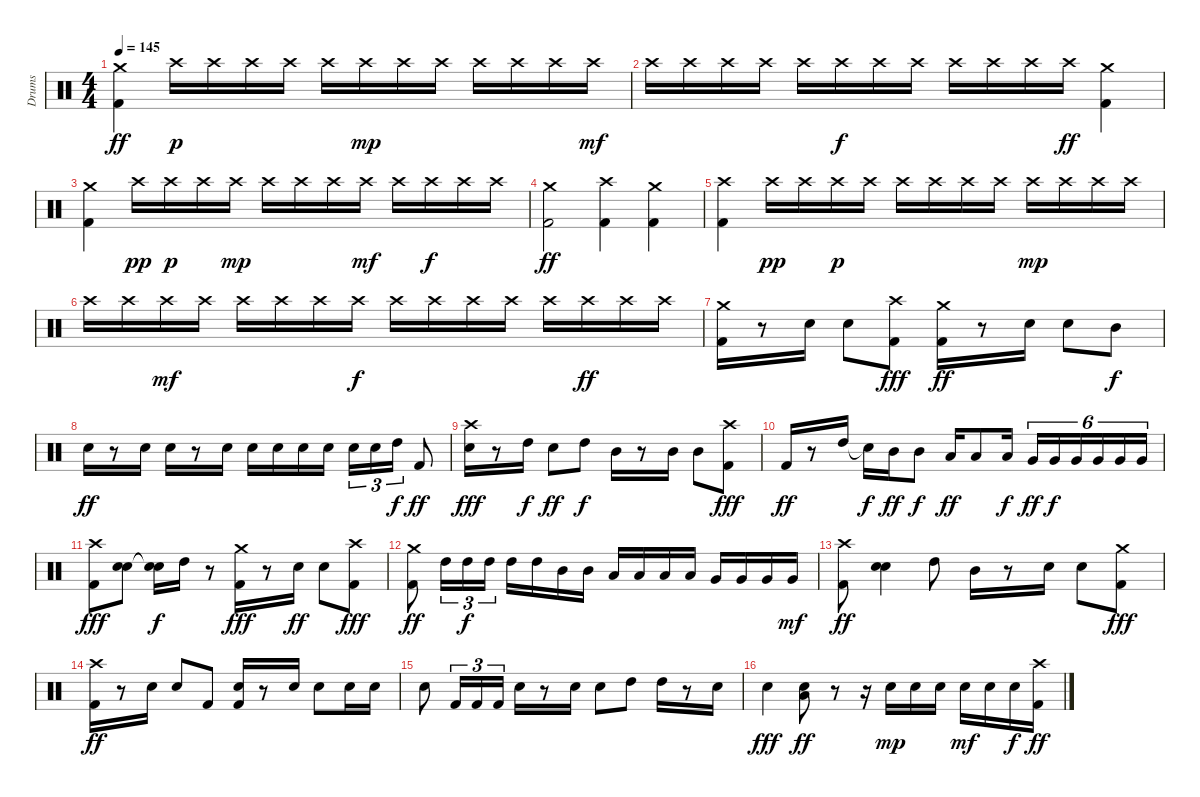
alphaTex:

\track ("Drums" "Drums") {instrument percussion}
\staff {score}
\articulation defaults
\ts (4 4)
\tempo 145
\clef neutral
\ks c
("Crash medium (hit)" "Kick (hit) 2").4{dy ff} "Crash high (hit)".16{dy p} "Crash high (hit)".16 "Crash high (hit)".16 "Crash high (hit)".16 "Crash high (hit)".16 "Crash high (hit)".16{dy mp} "Crash high (hit)".16 "Crash high (hit)".16 "Crash high (hit)".16 "Crash high (hit)".16 "Crash high (hit)".16 "Crash high (hit)".16{dy mf} |
"Crash high (hit)".16 "Crash high (hit)".16 "Crash high (hit)".16 "Crash high (hit)".16 "Crash high (hit)".16 "Crash high (hit)".16{dy f} "Crash high (hit)".16 "Crash high (hit)".16 "Crash high (hit)".16 "Crash high (hit)".16 "Crash high (hit)".16 "Crash high (hit)".16{dy ff} ("Crash medium (hit)" "Kick (hit) 2").4 |
("Crash medium (hit)" "Kick (hit) 2").4 "Crash high (hit)".16{dy pp} "Crash high (hit)".16{dy p} "Crash high (hit)".16 "Crash high (hit)".16{dy mp} "Crash high (hit)".16 "Crash high (hit)".16 "Crash high (hit)".16 "Crash high (hit)".16{dy mf} "Crash high (hit)".16 "Crash high (hit)".16{dy f} "Crash high (hit)".16 "Crash high (hit)".16 |
("Crash medium (hit)" "Kick (hit) 2").2{dy ff} ("Crash high (hit)" "Kick (hit) 2").4 ("Crash medium (hit)" "Kick (hit) 2").4 |
("Crash high (hit)" "Kick (hit) 2").4 "Crash high (hit)".16{dy pp} "Crash high (hit)".16 "Crash high (hit)".16{dy p} "Crash high (hit)".16 "Crash high (hit)".16 "Crash high (hit)".16 "Crash high (hit)".16 "Crash high (hit)".16 "Crash high (hit)".16{dy mp} "Crash high (hit)".16 "Crash high (hit)".16 "Crash high (hit)".16 |
"Crash high (hit)".16 "Crash high (hit)".16 "Crash high (hit)".16{dy mf} "Crash high (hit)".16 "Crash high (hit)".16 "Crash high (hit)".16 "Crash high (hit)".16 "Crash high (hit)".16{dy f} "Crash high (hit)".16 "Crash high (hit)".16 "Crash high (hit)".16 "Crash high (hit)".16 "Crash high (hit)".16 "Crash high (hit)".16{dy ff} "Crash high (hit)".16 "Crash high (hit)".16 |
("Crash medium (hit)" "Kick (hit) 2").16 r.8 "Snare (hit) 2".16 "Snare (hit) 2".8 ("Kick (hit) 2" "Crash high (hit)").8{dy fff} ("Crash medium (hit)" "Kick (hit) 2").16{dy ff} r.8 "Snare (hit) 2".16 "Snare (hit) 2".8 "Mid Tom (hit)".8{dy f} |
"Snare (hit) 2".16{dy ff} r.8 "Snare (hit) 2".16 "Snare (hit) 2".16 r.8 "Snare (hit) 2".16 "Snare (hit) 2".16 "Snare (hit) 2".16 "Snare (hit) 2".16 "Snare (hit) 2".16 "Snare (hit) 2".16{tu (3 2)} "Snare (hit) 2".16{tu (3 2)} "High Tom (hit)".16{tu (3 2) dy f} "Kick (hit) 2".8{dy ff} |
("Snare (hit) 2" "Crash high (hit)").16{dy fff} r.8 "High Tom (hit)".16{dy f} "Snare (hit) 2".8{dy ff} "High Tom (hit)".8{dy f} "Mid Tom (hit)".16 r.8 "Mid Tom (hit)".16 "Mid Tom (hit)".8 ("Kick (hit) 2" "Crash high (hit)").8{dy fff} |
"Kick (hit) 2".16{dy ff} r.8 "High Tom (hit)".16 "Snare (hit)"{t}.16{dy f} "Mid Tom (hit)".16{dy ff} "Mid Tom (hit)".8{dy f} "Low Tom (hit)".16{dy ff} "Low Tom (hit)".8 "Low Tom (hit)".16{dy f} "Very Low Tom (hit)".16{tu (6 4) dy ff} "Very Low Tom (hit)".16{tu (6 4) dy f} "Very Low Tom (hit)".16{tu (6 4)} "Very Low Tom (hit)".16{tu (6 4)} "Very Low Tom (hit)".16{tu (6 4)} "Very Low Tom (hit)".16{tu (6 4)} |
("Kick (hit) 2" "Crash high (hit)").8{dy fff} ("Snare (hit) 2" "Snare (hit) 2").8 ("Snare (hit)"{t} "Snare (hit)"{t}).16{dy f} "High Tom (hit)".16 r.8 ("Kick (hit) 2" "Crash medium (hit)").16{dy fff} r.8 "Snare (hit) 2".16{dy ff} "Snare (hit) 2".8 ("Kick (hit) 2" "Crash high (hit)").8{dy fff} |
("Crash medium (hit)" "Kick (hit) 2").8{dy ff} "High Tom (hit)".16{tu (3 2)} "High Tom (hit)".16{tu (3 2) dy f} "High Tom (hit)".16{tu (3 2)} "High Tom (hit)".16 "High Tom (hit)".16 "Mid Tom (hit)".16 "Mid Tom (hit)".16 "Low Tom (hit)".16 "Low Tom (hit)".16 "Low Tom (hit)".16 "Low Tom (hit)".16 "Very Low Tom (hit)".16 "Very Low Tom (hit)".16 "Very Low Tom (hit)".16 "Very Low Tom (hit)".16{dy mf} |
("Crash high (hit)" "Kick (hit) 2").8{dy ff} ("Snare (hit) 2" "Snare (hit) 2").4 "High Tom (hit)".8 "Mid Tom (hit)".16 r.8 "Snare (hit) 2".16 "Snare (hit) 2".8 ("Kick (hit) 2" "Crash medium (hit)").8{dy fff} |
("Crash high (hit)" "Kick (hit) 2").16{dy ff} r.8 "Snare (hit) 2".16 "Snare (hit) 2".8 "Kick (hit) 2".8 ("Snare (hit) 2" "Kick (hit) 2").16 r.8 "Snare (hit) 2".16 "Snare (hit) 2".8 "Snare (hit) 2".16 "Snare (hit) 2".16 |
"Snare (hit) 2".8 "Kick (hit) 2".16{tu (3 2)} "Kick (hit) 2".16{tu (3 2)} "Kick (hit) 2".16{tu (3 2)} "Snare (hit) 2".16 r.8 "Snare (hit) 2".16 "Snare (hit) 2".8 "High Tom (hit)".8 "High Tom (hit)".16 r.8 "Snare (hit) 2".16 |
"Snare (hit) 2".4{dy fff} ("Snare (hit) 2" "Low Tom (hit)").8{dy ff} r.8 r.16 "Snare (hit) 2".16{dy mp} "Snare (hit) 2".16 "Snare (hit) 2".16 "Snare (hit) 2".16{dy mf} "Snare (hit) 2".16 "Snare (hit) 2".16{dy f} ("Kick (hit) 2" "Crash high (hit)").16{dy ff}
